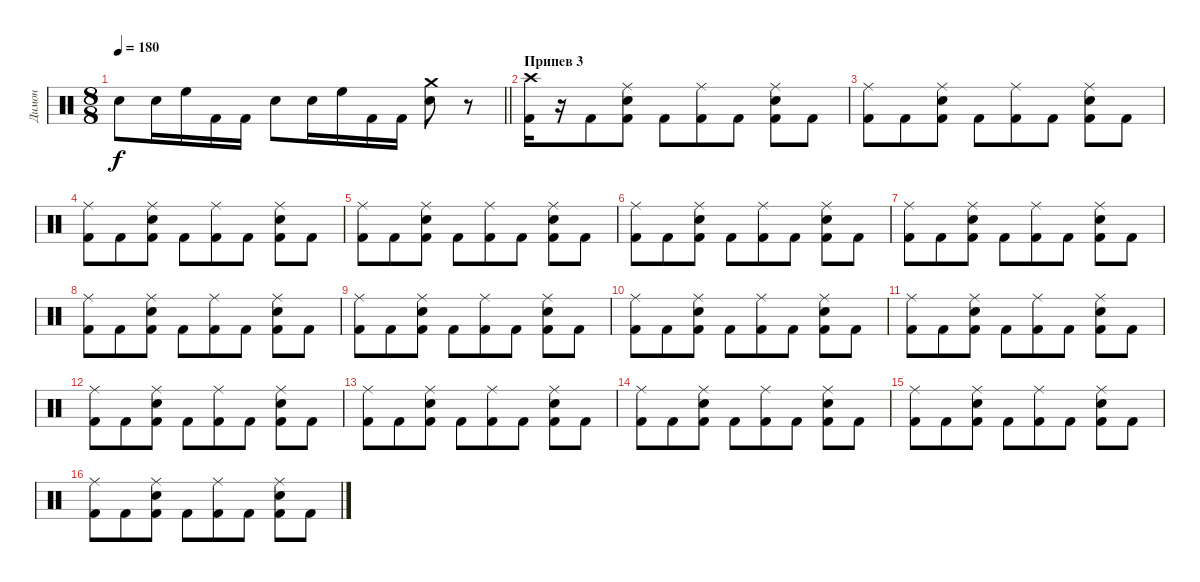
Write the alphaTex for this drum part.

\track ("Димон" "Димон") {instrument percussion}
\staff {score}
\articulation defaults
\ts (8 8)
\tempo 180
\clef neutral
\barLineRight lightlight
\ks c "Electric Snare (hit)".8{dy f} "Electric Snare (hit)".16 "High Floor Tom (hit)".16 "Kick (hit) 2".16 "Kick (hit) 2".16 "Electric Snare (hit)".8 "Electric Snare (hit)".16 "High Floor Tom (hit)".16 "Kick (hit) 2".16 "Kick (hit) 2".16
("Crash medium (hit)" "Electric Snare (hit)").8 r.8 |
\section ("" "Припев 3")
("Crash high (hit)" "Kick (hit) 2").16 r.16 "Kick (hit) 2".8 ("Electric Snare (hit)" "Ride (middle)" "Kick (hit) 2").8 "Kick (hit) 2".8 ("Ride (middle)" "Kick (hit) 2").8 "Kick (hit) 2".8 ("Electric Snare (hit)" "Ride (middle)" "Kick (hit) 2").8 "Kick (hit) 2".8 |
("Ride (middle)" "Kick (hit) 2").8 "Kick (hit) 2".8 ("Electric Snare (hit)" "Ride (middle)" "Kick (hit) 2").8 "Kick (hit) 2".8 ("Ride (middle)" "Kick (hit) 2").8 "Kick (hit) 2".8 ("Electric Snare (hit)" "Ride (middle)" "Kick (hit) 2").8 "Kick (hit) 2".8 |
("Ride (middle)" "Kick (hit) 2").8 "Kick (hit) 2".8 ("Electric Snare (hit)" "Ride (middle)" "Kick (hit) 2").8 "Kick (hit) 2".8 ("Ride (middle)" "Kick (hit) 2").8 "Kick (hit) 2".8 ("Electric Snare (hit)" "Ride (middle)" "Kick (hit) 2").8 "Kick (hit) 2".8 |
("Ride (middle)" "Kick (hit) 2").8 "Kick (hit) 2".8 ("Electric Snare (hit)" "Ride (middle)" "Kick (hit) 2").8 "Kick (hit) 2".8 ("Ride (middle)" "Kick (hit) 2").8 "Kick (hit) 2".8 ("Electric Snare (hit)" "Ride (middle)" "Kick (hit) 2").8 "Kick (hit) 2".8 |
("Ride (middle)" "Kick (hit) 2").8 "Kick (hit) 2".8 ("Electric Snare (hit)" "Ride (middle)" "Kick (hit) 2").8 "Kick (hit) 2".8 ("Ride (middle)" "Kick (hit) 2").8 "Kick (hit) 2".8 ("Electric Snare (hit)" "Ride (middle)" "Kick (hit) 2").8 "Kick (hit) 2".8 |
("Ride (middle)" "Kick (hit) 2").8 "Kick (hit) 2".8 ("Electric Snare (hit)" "Ride (middle)" "Kick (hit) 2").8 "Kick (hit) 2".8 ("Ride (middle)" "Kick (hit) 2").8 "Kick (hit) 2".8 ("Electric Snare (hit)" "Ride (middle)" "Kick (hit) 2").8 "Kick (hit) 2".8 |
("Ride (middle)" "Kick (hit) 2").8 "Kick (hit) 2".8 ("Electric Snare (hit)" "Ride (middle)" "Kick (hit) 2").8 "Kick (hit) 2".8 ("Ride (middle)" "Kick (hit) 2").8 "Kick (hit) 2".8 ("Electric Snare (hit)" "Ride (middle)" "Kick (hit) 2").8 "Kick (hit) 2".8 |
("Ride (middle)" "Kick (hit) 2").8 "Kick (hit) 2".8 ("Electric Snare (hit)" "Ride (middle)" "Kick (hit) 2").8 "Kick (hit) 2".8 ("Ride (middle)" "Kick (hit) 2").8 "Kick (hit) 2".8 ("Electric Snare (hit)" "Ride (middle)" "Kick (hit) 2").8 "Kick (hit) 2".8 |
("Ride (middle)" "Kick (hit) 2").8 "Kick (hit) 2".8 ("Electric Snare (hit)" "Ride (middle)" "Kick (hit) 2").8 "Kick (hit) 2".8 ("Ride (middle)" "Kick (hit) 2").8 "Kick (hit) 2".8 ("Electric Snare (hit)" "Ride (middle)" "Kick (hit) 2").8 "Kick (hit) 2".8 |
("Ride (middle)" "Kick (hit) 2").8 "Kick (hit) 2".8 ("Electric Snare (hit)" "Ride (middle)" "Kick (hit) 2").8 "Kick (hit) 2".8 ("Ride (middle)" "Kick (hit) 2").8 "Kick (hit) 2".8 ("Electric Snare (hit)" "Ride (middle)" "Kick (hit) 2").8 "Kick (hit) 2".8 |
("Ride (middle)" "Kick (hit) 2").8 "Kick (hit) 2".8 ("Electric Snare (hit)" "Ride (middle)" "Kick (hit) 2").8 "Kick (hit) 2".8 ("Ride (middle)" "Kick (hit) 2").8 "Kick (hit) 2".8 ("Electric Snare (hit)" "Ride (middle)" "Kick (hit) 2").8 "Kick (hit) 2".8 |
("Ride (middle)" "Kick (hit) 2").8 "Kick (hit) 2".8 ("Electric Snare (hit)" "Ride (middle)" "Kick (hit) 2").8 "Kick (hit) 2".8 ("Ride (middle)" "Kick (hit) 2").8 "Kick (hit) 2".8 ("Electric Snare (hit)" "Ride (middle)" "Kick (hit) 2").8 "Kick (hit) 2".8 |
("Ride (middle)" "Kick (hit) 2").8 "Kick (hit) 2".8 ("Electric Snare (hit)" "Ride (middle)" "Kick (hit) 2").8 "Kick (hit) 2".8 ("Ride (middle)" "Kick (hit) 2").8 "Kick (hit) 2".8 ("Electric Snare (hit)" "Ride (middle)" "Kick (hit) 2").8 "Kick (hit) 2".8 |
("Ride (middle)" "Kick (hit) 2").8 "Kick (hit) 2".8 ("Electric Snare (hit)" "Ride (middle)" "Kick (hit) 2").8 "Kick (hit) 2".8 ("Ride (middle)" "Kick (hit) 2").8 "Kick (hit) 2".8 ("Electric Snare (hit)" "Ride (middle)" "Kick (hit) 2").8 "Kick (hit) 2".8 |
("Ride (middle)" "Kick (hit) 2").8 "Kick (hit) 2".8 ("Electric Snare (hit)" "Ride (middle)" "Kick (hit) 2").8 "Kick (hit) 2".8 ("Ride (middle)" "Kick (hit) 2").8 "Kick (hit) 2".8 ("Electric Snare (hit)" "Ride (middle)" "Kick (hit) 2").8 "Kick (hit) 2".8
